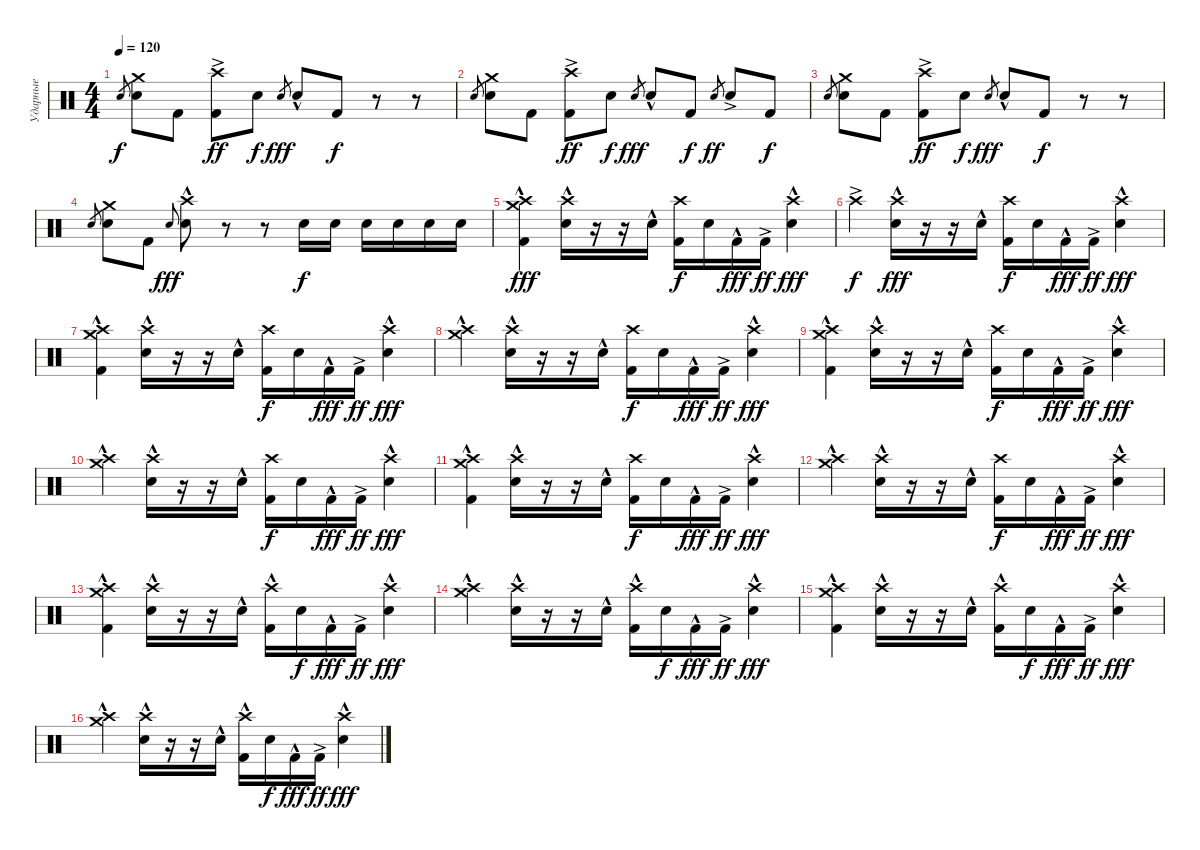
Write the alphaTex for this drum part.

\track ("Ударные" "Ударные") {instrument percussion}
\staff {score}
\articulation defaults
\ts (4 4)
\tempo 120
\clef neutral
\ks c "Electric Snare (hit)".8{gr dy f}
("Crash medium (hit)" "Electric Snare (hit)").8 "Kick (hit) 2".8 ("Crash high (hit)" "Kick (hit) 2"{ac}).8{dy ff} "Electric Snare (hit)".8{dy f} "Electric Snare (hit)".8{gr dy fff} "Electric Snare (hit)"{hac}.8 "Kick (hit) 2".8{dy f} r.8 r.8 |
"Electric Snare (hit)".8{gr} ("Crash medium (hit)" "Electric Snare (hit)").8 "Kick (hit) 2".8 ("Crash high (hit)" "Kick (hit) 2"{ac}).8{dy ff} "Electric Snare (hit)".8{dy f} "Electric Snare (hit)".8{gr dy fff} "Electric Snare (hit)"{hac}.8 "Kick (hit) 2".8{dy f} "Electric Snare (hit)".8{gr dy ff} "Electric Snare (hit)"{ac}.8 "Kick (hit) 2".8{dy f} |
"Electric Snare (hit)".8{gr} ("Crash medium (hit)" "Electric Snare (hit)").8 "Kick (hit) 2".8 ("Crash high (hit)" "Kick (hit) 2"{ac}).8{dy ff} "Electric Snare (hit)".8{dy f} "Electric Snare (hit)".8{gr dy fff} "Electric Snare (hit)"{hac}.8 "Kick (hit) 2".8{dy f} r.8 r.8 |
"Electric Snare (hit)".8{gr} ("Crash medium (hit)" "Electric Snare (hit)").8 "Kick (hit) 2".8 "Electric Snare (hit)".8{gr onbeat dy fff} ("Crash high (hit)" "Electric Snare (hit)"{hac}).8 r.8 r.8 "Electric Snare (hit)".16{dy f} "Electric Snare (hit)".16 "Electric Snare (hit)".16 "Electric Snare (hit)".16 "Electric Snare (hit)".16 "Electric Snare (hit)".16 |
("Crash high (hit)" "Crash medium (hit)"{hac} "Kick (hit) 2").4{dy fff} ("Crash high (hit)" "Electric Snare (hit)"{hac}).16 r.16 r.16 "Electric Snare (hit)"{hac}.16 ("Crash high (hit)" "Kick (hit) 2").16{dy f} "Electric Snare (hit)".16 "Kick (hit) 2"{hac}.16{dy fff} "Kick (hit) 2"{ac}.16{dy ff} ("Crash high (hit)" "Electric Snare (hit)"{hac}).4{dy fff} |
"Crash high (hit)"{ac}.4{dy f} ("Crash high (hit)" "Electric Snare (hit)"{hac}).16{dy fff} r.16 r.16 "Electric Snare (hit)"{hac}.16 ("Crash high (hit)" "Kick (hit) 2").16{dy f} "Electric Snare (hit)".16 "Kick (hit) 2"{hac}.16{dy fff} "Kick (hit) 2"{ac}.16{dy ff} ("Crash high (hit)" "Electric Snare (hit)"{hac}).4{dy fff} |
("Crash high (hit)" "Crash medium (hit)"{hac} "Kick (hit) 2").4 ("Crash high (hit)" "Electric Snare (hit)"{hac}).16 r.16 r.16 "Electric Snare (hit)"{hac}.16 ("Crash high (hit)" "Kick (hit) 2").16{dy f} "Electric Snare (hit)".16 "Kick (hit) 2"{hac}.16{dy fff} "Kick (hit) 2"{ac}.16{dy ff} ("Crash high (hit)" "Electric Snare (hit)"{hac}).4{dy fff} |
("Crash high (hit)" "Crash medium (hit)"{hac}).4 ("Crash high (hit)" "Electric Snare (hit)"{hac}).16 r.16 r.16 "Electric Snare (hit)"{hac}.16 ("Crash high (hit)" "Kick (hit) 2").16{dy f} "Electric Snare (hit)".16 "Kick (hit) 2"{hac}.16{dy fff} "Kick (hit) 2"{ac}.16{dy ff} ("Crash high (hit)" "Electric Snare (hit)"{hac}).4{dy fff} |
("Crash high (hit)" "Crash medium (hit)"{hac} "Kick (hit) 2").4 ("Crash high (hit)" "Electric Snare (hit)"{hac}).16 r.16 r.16 "Electric Snare (hit)"{hac}.16 ("Crash high (hit)" "Kick (hit) 2").16{dy f} "Electric Snare (hit)".16 "Kick (hit) 2"{hac}.16{dy fff} "Kick (hit) 2"{ac}.16{dy ff} ("Crash high (hit)" "Electric Snare (hit)"{hac}).4{dy fff} |
("Crash high (hit)" "Crash medium (hit)"{hac}).4 ("Crash high (hit)" "Electric Snare (hit)"{hac}).16 r.16 r.16 "Electric Snare (hit)"{hac}.16 ("Crash high (hit)" "Kick (hit) 2").16{dy f} "Electric Snare (hit)".16 "Kick (hit) 2"{hac}.16{dy fff} "Kick (hit) 2"{ac}.16{dy ff} ("Crash high (hit)" "Electric Snare (hit)"{hac}).4{dy fff} |
("Crash high (hit)" "Crash medium (hit)"{hac} "Kick (hit) 2").4 ("Crash high (hit)" "Electric Snare (hit)"{hac}).16 r.16 r.16 "Electric Snare (hit)"{hac}.16 ("Crash high (hit)" "Kick (hit) 2").16{dy f} "Electric Snare (hit)".16 "Kick (hit) 2"{hac}.16{dy fff} "Kick (hit) 2"{ac}.16{dy ff} ("Crash high (hit)" "Electric Snare (hit)"{hac}).4{dy fff} |
("Crash high (hit)" "Crash medium (hit)"{hac}).4 ("Crash high (hit)" "Electric Snare (hit)"{hac}).16 r.16 r.16 "Electric Snare (hit)"{hac}.16 ("Crash high (hit)" "Kick (hit) 2").16{dy f} "Electric Snare (hit)".16 "Kick (hit) 2"{hac}.16{dy fff} "Kick (hit) 2"{ac}.16{dy ff} ("Crash high (hit)" "Electric Snare (hit)"{hac}).4{dy fff} |
("Crash high (hit)"{hac} "Crash medium (hit)"{hac} "Kick (hit) 2").4 ("Crash high (hit)"{hac} "Electric Snare (hit)"{hac}).16 r.16 r.16 "Electric Snare (hit)"{hac}.16 ("Crash high (hit)"{hac} "Kick (hit) 2").16 "Electric Snare (hit)".16{dy f} "Kick (hit) 2"{hac}.16{dy fff} "Kick (hit) 2"{ac}.16{dy ff} ("Crash high (hit)"{hac} "Electric Snare (hit)"{hac}).4{dy fff} |
("Crash high (hit)"{hac} "Crash medium (hit)"{hac}).4 ("Crash high (hit)"{hac} "Electric Snare (hit)"{hac}).16 r.16 r.16 "Electric Snare (hit)"{hac}.16 ("Crash high (hit)"{hac} "Kick (hit) 2").16 "Electric Snare (hit)".16{dy f} "Kick (hit) 2"{hac}.16{dy fff} "Kick (hit) 2"{ac}.16{dy ff} ("Crash high (hit)"{hac} "Electric Snare (hit)"{hac}).4{dy fff} |
("Crash high (hit)"{hac} "Crash medium (hit)"{hac} "Kick (hit) 2").4 ("Crash high (hit)"{hac} "Electric Snare (hit)"{hac}).16 r.16 r.16 "Electric Snare (hit)"{hac}.16 ("Crash high (hit)"{hac} "Kick (hit) 2").16 "Electric Snare (hit)".16{dy f} "Kick (hit) 2"{hac}.16{dy fff} "Kick (hit) 2"{ac}.16{dy ff} ("Crash high (hit)"{hac} "Electric Snare (hit)"{hac}).4{dy fff} |
("Crash high (hit)"{hac} "Crash medium (hit)"{hac}).4 ("Crash high (hit)"{hac} "Electric Snare (hit)"{hac}).16 r.16 r.16 "Electric Snare (hit)"{hac}.16 ("Crash high (hit)"{hac} "Kick (hit) 2").16 "Electric Snare (hit)".16{dy f} "Kick (hit) 2"{hac}.16{dy fff} "Kick (hit) 2"{ac}.16{dy ff} ("Crash high (hit)"{hac} "Electric Snare (hit)"{hac}).4{dy fff}
